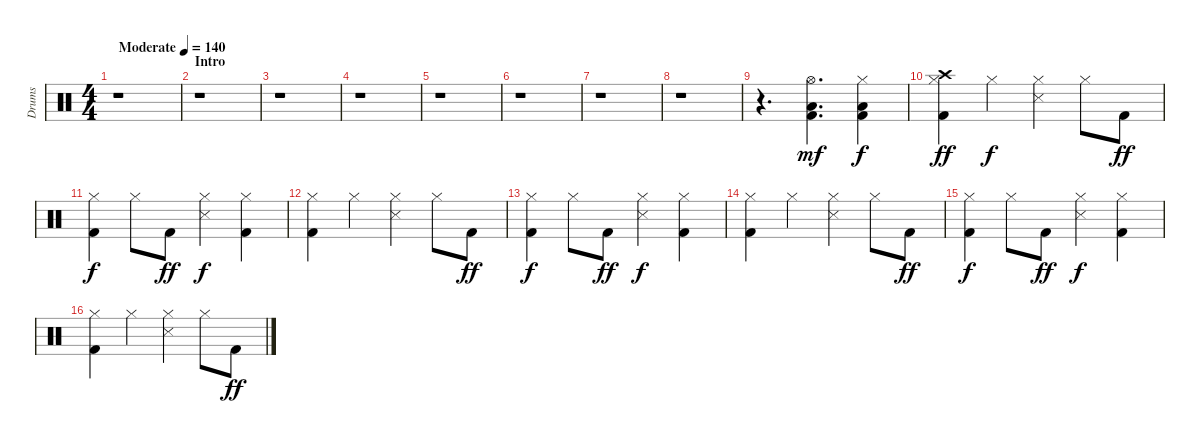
\track ("Drums" "Drums") {instrument percussion}
\staff {score}
\articulation defaults
\ts (4 4)
\tempo (140 "Moderate")
\clef neutral
\ks c
r.1{dy mf} |
\section ("" "Intro")
r.1 |
r.1 |
r.1 |
r.1 |
r.1 |
r.1 |
r.1 |
r.4{d} ("Kick (hit) 2" "Low Tom (hit)" "Hi-Hat (open)").4{d} ("Kick (hit) 2" "Low Floor Tom (hit)" "Hi-Hat (closed)").4{dy f} |
("Kick (hit) 2" "Hi-Hat (closed)" "Crash high (hit)").4{dy ff} "Hi-Hat (closed)".4{dy f} ("Snare (side stick) 3" "Hi-Hat (closed)").4 "Hi-Hat (closed)".8 "Kick (hit) 2".8{dy ff} |
("Kick (hit) 2" "Hi-Hat (closed)").4{dy f} "Hi-Hat (closed)".8 "Kick (hit) 2".8{dy ff} ("Snare (side stick) 3" "Hi-Hat (closed)").4{dy f} ("Kick (hit) 2" "Hi-Hat (closed)").4 |
("Kick (hit) 2" "Hi-Hat (closed)").4 "Hi-Hat (closed)".4 ("Snare (side stick) 3" "Hi-Hat (closed)").4 "Hi-Hat (closed)".8 "Kick (hit) 2".8{dy ff} |
("Kick (hit) 2" "Hi-Hat (closed)").4{dy f} "Hi-Hat (closed)".8 "Kick (hit) 2".8{dy ff} ("Snare (side stick) 3" "Hi-Hat (closed)").4{dy f} ("Kick (hit) 2" "Hi-Hat (closed)").4 |
("Kick (hit) 2" "Hi-Hat (closed)").4 "Hi-Hat (closed)".4 ("Snare (side stick) 3" "Hi-Hat (closed)").4 "Hi-Hat (closed)".8 "Kick (hit) 2".8{dy ff} |
("Kick (hit) 2" "Hi-Hat (closed)").4{dy f} "Hi-Hat (closed)".8 "Kick (hit) 2".8{dy ff} ("Snare (side stick) 3" "Hi-Hat (closed)").4{dy f} ("Kick (hit) 2" "Hi-Hat (closed)").4 |
("Kick (hit) 2" "Hi-Hat (closed)").4 "Hi-Hat (closed)".4 ("Snare (side stick) 3" "Hi-Hat (closed)").4 "Hi-Hat (closed)".8 "Kick (hit) 2".8{dy ff}
